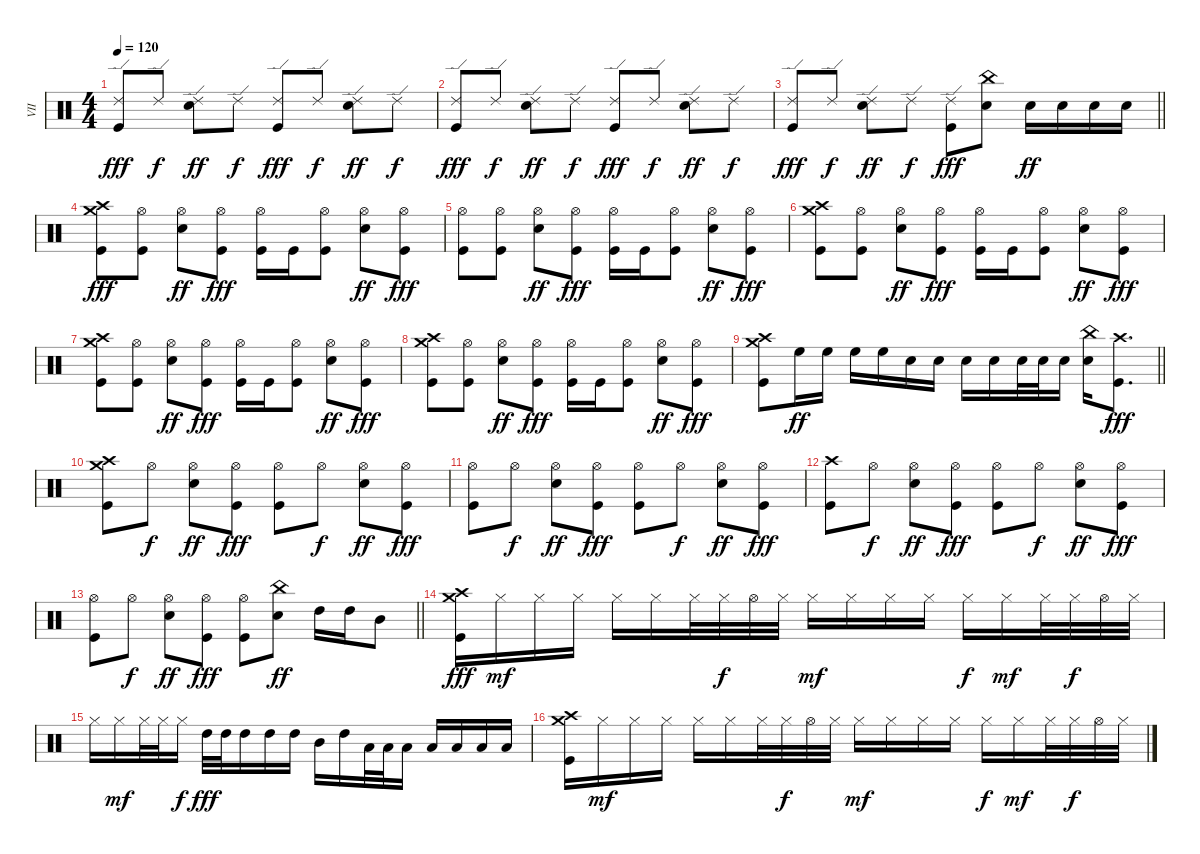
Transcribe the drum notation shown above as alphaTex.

\track ("VII" "VII") {instrument percussion}
\staff {score}
\articulation defaults
\ts (4 4)
\tempo 120
\clef neutral
\ks c
("Ride (edge) 2" "Kick (hit)").8{dy fff} "Ride (edge) 2".8{dy f} ("Ride (edge) 2" "Snare (hit) 2").8{dy ff} "Ride (edge) 2".8{dy f} ("Ride (edge) 2" "Kick (hit)").8{dy fff} "Ride (edge) 2".8{dy f} ("Ride (edge) 2" "Snare (hit) 2").8{dy ff} "Ride (edge) 2".8{dy f} |
("Ride (edge) 2" "Kick (hit)").8{dy fff} "Ride (edge) 2".8{dy f} ("Ride (edge) 2" "Snare (hit) 2").8{dy ff} "Ride (edge) 2".8{dy f} ("Ride (edge) 2" "Kick (hit)").8{dy fff} "Ride (edge) 2".8{dy f} ("Ride (edge) 2" "Snare (hit) 2").8{dy ff} "Ride (edge) 2".8{dy f} |
\barLineRight lightlight
("Ride (edge) 2" "Kick (hit)").8{dy fff} "Ride (edge) 2".8{dy f} ("Ride (edge) 2" "Snare (hit) 2").8{dy ff} "Ride (edge) 2".8{dy f} ("Ride (edge) 2" "Kick (hit)").8{dy fff} ("China (hit)" "Snare (hit) 2").8 "Snare (hit) 2".16{dy ff} "Snare (hit) 2".16 "Snare (hit) 2".16 "Snare (hit) 2".16 |
("Crash high (hit)" "Crash medium (hit)" "Kick (hit)").8{dy fff} ("Hi-Hat (open)" "Kick (hit)").8 ("Hi-Hat (open)" "Snare (hit) 2").8{dy ff} ("Hi-Hat (open)" "Kick (hit)").8{dy fff} ("Hi-Hat (open)" "Kick (hit)").16 "Kick (hit)".16 ("Hi-Hat (open)" "Kick (hit)").8 ("Hi-Hat (open)" "Snare (hit) 2").8{dy ff} ("Hi-Hat (open)" "Kick (hit)").8{dy fff} |
("Hi-Hat (open)" "Kick (hit)").8 ("Hi-Hat (open)" "Kick (hit)").8 ("Hi-Hat (open)" "Snare (hit) 2").8{dy ff} ("Hi-Hat (open)" "Kick (hit)").8{dy fff} ("Hi-Hat (open)" "Kick (hit)").16 "Kick (hit)".16 ("Hi-Hat (open)" "Kick (hit)").8 ("Hi-Hat (open)" "Snare (hit) 2").8{dy ff} ("Hi-Hat (open)" "Kick (hit)").8{dy fff} |
("Crash high (hit)" "Crash medium (hit)" "Kick (hit)").8 ("Hi-Hat (open)" "Kick (hit)").8 ("Hi-Hat (open)" "Snare (hit) 2").8{dy ff} ("Hi-Hat (open)" "Kick (hit)").8{dy fff} ("Hi-Hat (open)" "Kick (hit)").16 "Kick (hit)".16 ("Hi-Hat (open)" "Kick (hit)").8 ("Hi-Hat (open)" "Snare (hit) 2").8{dy ff} ("Hi-Hat (open)" "Kick (hit)").8{dy fff} |
("Crash high (hit)" "Crash medium (hit)" "Kick (hit)").8 ("Hi-Hat (open)" "Kick (hit)").8 ("Hi-Hat (open)" "Snare (hit) 2").8{dy ff} ("Hi-Hat (open)" "Kick (hit)").8{dy fff} ("Hi-Hat (open)" "Kick (hit)").16 "Kick (hit)".16 ("Hi-Hat (open)" "Kick (hit)").8 ("Hi-Hat (open)" "Snare (hit) 2").8{dy ff} ("Hi-Hat (open)" "Kick (hit)").8{dy fff} |
("Crash high (hit)" "Crash medium (hit)" "Kick (hit)").8 ("Hi-Hat (open)" "Kick (hit)").8 ("Hi-Hat (open)" "Snare (hit) 2").8{dy ff} ("Hi-Hat (open)" "Kick (hit)").8{dy fff} ("Hi-Hat (open)" "Kick (hit)").16 "Kick (hit)".16 ("Hi-Hat (open)" "Kick (hit)").8 ("Hi-Hat (open)" "Snare (hit) 2").8{dy ff} ("Hi-Hat (open)" "Kick (hit)").8{dy fff} |
\barLineRight lightlight
("Crash high (hit)" "Crash medium (hit)" "Kick (hit)").8 "High Floor Tom (hit)".16{dy ff} "High Floor Tom (hit)".16 "High Floor Tom (hit)".16 "High Floor Tom (hit)".16 "Snare (hit) 2".16 "Snare (hit) 2".16 "Snare (hit) 2".16 "Snare (hit) 2".16 "Snare (hit) 2".32 "Snare (hit) 2".32 "Snare (hit) 2".16 ("China (hit)" "Snare (hit) 2").16 ("Crash high (hit)" "Kick (hit)").8{d dy fff} |
("Crash high (hit)" "Crash medium (hit)" "Kick (hit)").8 "Hi-Hat (open)".8{dy f} ("Hi-Hat (open)" "Snare (hit) 2").8{dy ff} ("Hi-Hat (open)" "Kick (hit)").8{dy fff} ("Hi-Hat (open)" "Kick (hit)").8 "Hi-Hat (open)".8{dy f} ("Hi-Hat (open)" "Snare (hit) 2").8{dy ff} ("Hi-Hat (open)" "Kick (hit)").8{dy fff} |
("Hi-Hat (open)" "Kick (hit)").8 "Hi-Hat (open)".8{dy f} ("Hi-Hat (open)" "Snare (hit) 2").8{dy ff} ("Hi-Hat (open)" "Kick (hit)").8{dy fff} ("Hi-Hat (open)" "Kick (hit)").8 "Hi-Hat (open)".8{dy f} ("Hi-Hat (open)" "Snare (hit) 2").8{dy ff} ("Hi-Hat (open)" "Kick (hit)").8{dy fff} |
("Crash high (hit)" "Kick (hit)").8 "Hi-Hat (open)".8{dy f} ("Hi-Hat (open)" "Snare (hit) 2").8{dy ff} ("Hi-Hat (open)" "Kick (hit)").8{dy fff} ("Hi-Hat (open)" "Kick (hit)").8 "Hi-Hat (open)".8{dy f} ("Hi-Hat (open)" "Snare (hit) 2").8{dy ff} ("Hi-Hat (open)" "Kick (hit)").8{dy fff} |
\barLineRight lightlight
("Hi-Hat (open)" "Kick (hit)").8 "Hi-Hat (open)".8{dy f} ("Hi-Hat (open)" "Snare (hit) 2").8{dy ff} ("Hi-Hat (open)" "Kick (hit)").8{dy fff} ("Hi-Hat (open)" "Kick (hit)").8 ("China (hit)" "Snare (hit) 2").8{dy ff} "High Tom (hit)".16 "High Tom (hit)".16 "Mid Tom (hit)".8 |
("Crash high (hit)" "Crash medium (hit)" "Kick (hit)").16{dy fff} "Hi-Hat (closed)".16{dy mf} "Hi-Hat (closed)".16 "Hi-Hat (closed)".16 "Hi-Hat (closed)".16 "Hi-Hat (closed)".16 "Hi-Hat (closed)".32 "Hi-Hat (closed)".32{dy f} "Hi-Hat (open)".32 "Hi-Hat (closed)".32 "Hi-Hat (closed)".16{dy mf} "Hi-Hat (closed)".16 "Hi-Hat (closed)".16 "Hi-Hat (closed)".16 "Hi-Hat (closed)".16{dy f} "Hi-Hat (closed)".16{dy mf} "Hi-Hat (closed)".32 "Hi-Hat (closed)".32{dy f} "Hi-Hat (open)".32 "Hi-Hat (closed)".32 |
"Hi-Hat (closed)".16 "Hi-Hat (closed)".16{dy mf} "Hi-Hat (closed)".32 "Hi-Hat (closed)".32 "Hi-Hat (closed)".16{dy f} "High Tom (hit)".32{dy fff} "High Tom (hit)".32 "High Tom (hit)".16 "High Tom (hit)".16 "High Tom (hit)".16 "Mid Tom (hit)".16 "High Tom (hit)".16 "Low Tom (hit)".32 "Low Tom (hit)".32 "Low Tom (hit)".16 "Low Tom (hit)".16 "Low Tom (hit)".16 "Low Tom (hit)".16 "Low Tom (hit)".16 |
("Crash high (hit)" "Crash medium (hit)" "Kick (hit)").16 "Hi-Hat (closed)".16{dy mf} "Hi-Hat (closed)".16 "Hi-Hat (closed)".16 "Hi-Hat (closed)".16 "Hi-Hat (closed)".16 "Hi-Hat (closed)".32 "Hi-Hat (closed)".32{dy f} "Hi-Hat (open)".32 "Hi-Hat (closed)".32 "Hi-Hat (closed)".16{dy mf} "Hi-Hat (closed)".16 "Hi-Hat (closed)".16 "Hi-Hat (closed)".16 "Hi-Hat (closed)".16{dy f} "Hi-Hat (closed)".16{dy mf} "Hi-Hat (closed)".32 "Hi-Hat (closed)".32{dy f} "Hi-Hat (open)".32 "Hi-Hat (closed)".32
